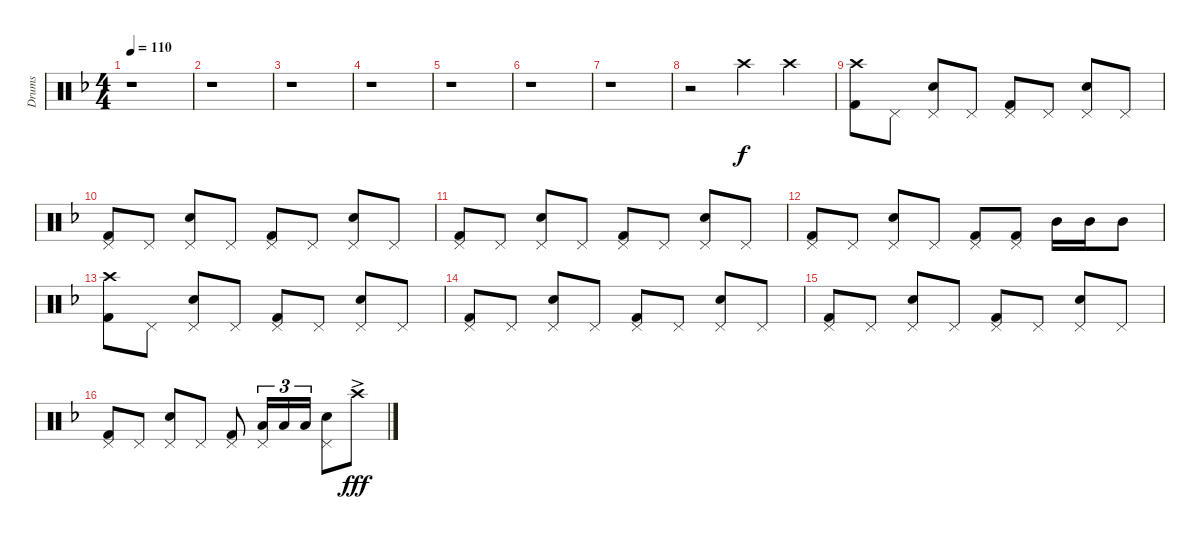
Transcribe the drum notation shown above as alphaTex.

\track ("Drums" "Drums") {instrument percussion}
\staff {score}
\articulation defaults
\ts (4 4)
\tempo 110
\clef neutral
\ks f
r.1{dy f} |
r.1 |
r.1 |
r.1 |
r.1 |
r.1 |
r.1 |
r.2 "Crash high (hit)".4 "Crash high (hit)".4 |
("Kick (hit) 2" "Crash high (hit)").8 "Pedal Hi-Hat (hit)".8 ("Snare (hit) 2" "Pedal Hi-Hat (hit)").8 "Pedal Hi-Hat (hit)".8 ("Kick (hit) 2" "Pedal Hi-Hat (hit)").8 "Pedal Hi-Hat (hit)".8 ("Snare (hit) 2" "Pedal Hi-Hat (hit)").8 "Pedal Hi-Hat (hit)".8 |
("Kick (hit) 2" "Pedal Hi-Hat (hit)").8 "Pedal Hi-Hat (hit)".8 ("Snare (hit) 2" "Pedal Hi-Hat (hit)").8 "Pedal Hi-Hat (hit)".8 ("Kick (hit) 2" "Pedal Hi-Hat (hit)").8 "Pedal Hi-Hat (hit)".8 ("Snare (hit) 2" "Pedal Hi-Hat (hit)").8 "Pedal Hi-Hat (hit)".8 |
("Kick (hit) 2" "Pedal Hi-Hat (hit)").8 "Pedal Hi-Hat (hit)".8 ("Snare (hit) 2" "Pedal Hi-Hat (hit)").8 "Pedal Hi-Hat (hit)".8 ("Kick (hit) 2" "Pedal Hi-Hat (hit)").8 "Pedal Hi-Hat (hit)".8 ("Snare (hit) 2" "Pedal Hi-Hat (hit)").8 "Pedal Hi-Hat (hit)".8 |
("Kick (hit) 2" "Pedal Hi-Hat (hit)").8 "Pedal Hi-Hat (hit)".8 ("Snare (hit) 2" "Pedal Hi-Hat (hit)").8 "Pedal Hi-Hat (hit)".8 ("Kick (hit) 2" "Pedal Hi-Hat (hit)").8 ("Kick (hit) 2" "Pedal Hi-Hat (hit)").8 "Mid Tom (hit)".16 "Mid Tom (hit)".16 "Mid Tom (hit)".8 |
("Kick (hit) 2" "Crash high (hit)").8 "Pedal Hi-Hat (hit)".8 ("Snare (hit) 2" "Pedal Hi-Hat (hit)").8 "Pedal Hi-Hat (hit)".8 ("Kick (hit) 2" "Pedal Hi-Hat (hit)").8 "Pedal Hi-Hat (hit)".8 ("Snare (hit) 2" "Pedal Hi-Hat (hit)").8 "Pedal Hi-Hat (hit)".8 |
("Kick (hit) 2" "Pedal Hi-Hat (hit)").8 "Pedal Hi-Hat (hit)".8 ("Snare (hit) 2" "Pedal Hi-Hat (hit)").8 "Pedal Hi-Hat (hit)".8 ("Kick (hit) 2" "Pedal Hi-Hat (hit)").8 "Pedal Hi-Hat (hit)".8 ("Snare (hit) 2" "Pedal Hi-Hat (hit)").8 "Pedal Hi-Hat (hit)".8 |
("Kick (hit) 2" "Pedal Hi-Hat (hit)").8 "Pedal Hi-Hat (hit)".8 ("Snare (hit) 2" "Pedal Hi-Hat (hit)").8 "Pedal Hi-Hat (hit)".8 ("Kick (hit) 2" "Pedal Hi-Hat (hit)").8 "Pedal Hi-Hat (hit)".8 ("Snare (hit) 2" "Pedal Hi-Hat (hit)").8 "Pedal Hi-Hat (hit)".8 |
("Kick (hit) 2" "Pedal Hi-Hat (hit)").8 "Pedal Hi-Hat (hit)".8 ("Snare (hit) 2" "Pedal Hi-Hat (hit)").8 "Pedal Hi-Hat (hit)".8 ("Kick (hit) 2" "Pedal Hi-Hat (hit)").8 ("Low Floor Tom (hit)" "Pedal Hi-Hat (hit)").16{tu (3 2)} "Low Floor Tom (hit)".16{tu (3 2)} "Low Floor Tom (hit)".16{tu (3 2)} ("Snare (hit) 2" "Pedal Hi-Hat (hit)").8 "Crash high (hit)"{ac}.8{dy fff}
